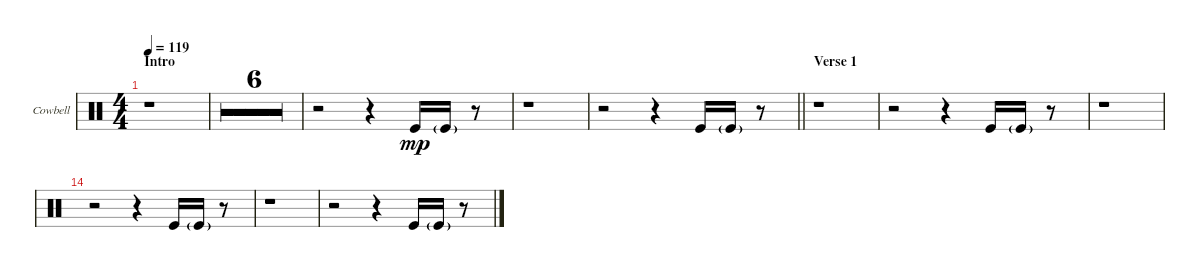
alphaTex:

\defaultSystemsLayout 4
\bracketExtendMode groupsimilarinstruments
\useSystemSignSeparator
\multiBarRest
\multiTrackTrackNamePolicy allsystems
\firstSystemTrackNameMode fullname
\firstSystemTrackNameOrientation horizontal
\otherSystemsTrackNameOrientation horizontal
\defaultBarNumberDisplay FirstOfSystem
\track ("Cowbell" "Cowbell") {multiBarRest instrument percussion}
\staff {score}
\articulation defaults
\ts (4 4)
\section ("" "Intro")
\tempo 119
\clef neutral
\ks aminor
r.1{dy mp} |
r.1 |
r.1 |
r.1 |
r.1 |
r.1 |
r.1 |
r.2 r.4 "Kick (hit)".16 "Kick (hit)"{g}.16 r.8 |
r.1 |
\barLineRight lightlight
r.2 r.4 "Kick (hit)".16 "Kick (hit)"{g}.16 r.8 |
\section ("" "Verse 1")
r.1 |
r.2 r.4 "Kick (hit)".16 "Kick (hit)"{g}.16 r.8 |
r.1 |
r.2 r.4 "Kick (hit)".16 "Kick (hit)"{g}.16 r.8 |
r.1 |
r.2 r.4 "Kick (hit)".16 "Kick (hit)"{g}.16 r.8
